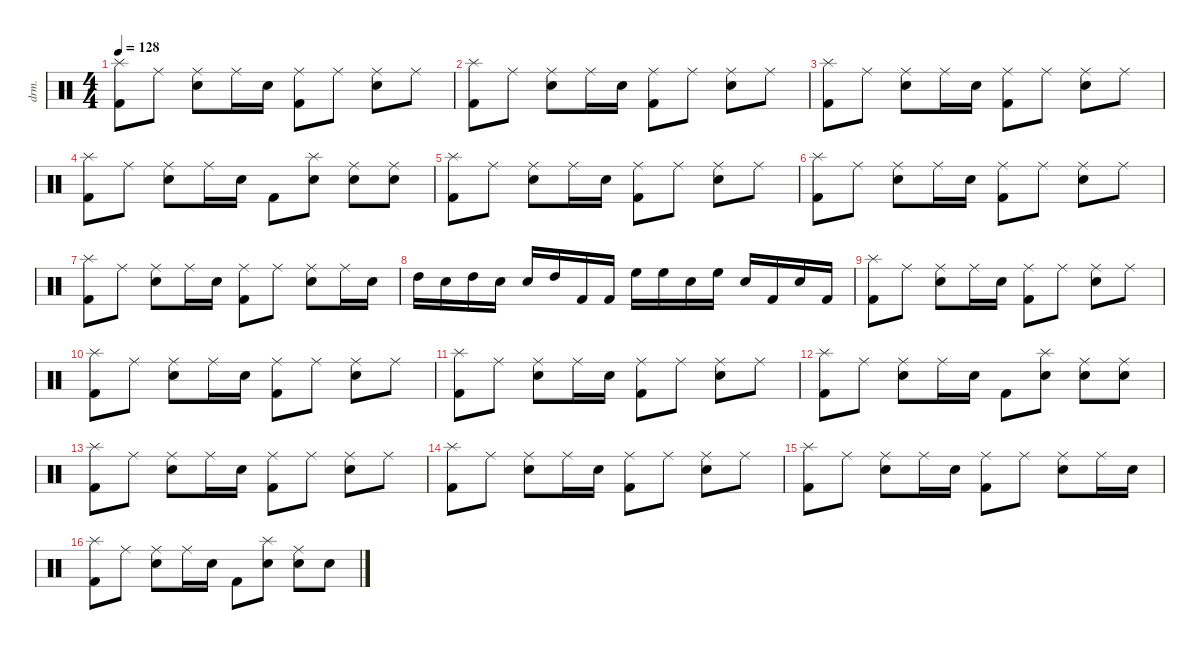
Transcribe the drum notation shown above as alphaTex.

\defaultSystemsLayout 4
\hideDynamics
\bracketExtendMode nobrackets
\track ("Drumkit" "drm.") {instrument percussion}
\staff {score}
\articulation defaults
\ts (4 4)
\tempo 128
\clef neutral
\ks c
("Kick (hit) 2" "Splash (hit)").8{dy mf beam Down} "Ride (middle)".8{beam Down} ("Ride (middle)" "Snare (hit) 2").8{beam Down} "Ride (middle)".16{beam Down} "Snare (hit) 2".16{beam Down} ("Ride (middle)" "Kick (hit) 2").8{beam Down} "Ride (middle)".8{beam Down} ("Ride (middle)" "Snare (hit) 2").8{beam Down} "Ride (middle)".8{beam Down} |
("Kick (hit) 2" "Splash (hit)").8{beam Down} "Ride (middle)".8{beam Down} ("Ride (middle)" "Snare (hit) 2").8{beam Down} "Ride (middle)".16{beam Down} "Snare (hit) 2".16{beam Down} ("Ride (middle)" "Kick (hit) 2").8{beam Down} "Ride (middle)".8{beam Down} ("Ride (middle)" "Snare (hit) 2").8{beam Down} "Ride (middle)".8{beam Down} |
("Kick (hit) 2" "Splash (hit)").8{beam Down} "Ride (middle)".8{beam Down} ("Ride (middle)" "Snare (hit) 2").8{beam Down} "Ride (middle)".16{beam Down} "Snare (hit) 2".16{beam Down} ("Ride (middle)" "Kick (hit) 2").8{beam Down} "Ride (middle)".8{beam Down} ("Ride (middle)" "Snare (hit) 2").8{beam Down} "Ride (middle)".8{beam Down} |
("Kick (hit) 2" "Splash (hit)").8{beam Down} "Ride (middle)".8{beam Down} ("Ride (middle)" "Snare (hit) 2").8{beam Down} "Ride (middle)".16{beam Down} "Snare (hit) 2".16{beam Down} "Kick (hit) 2".8{beam Down} ("Snare (hit) 2" "Splash (hit)").8{beam Down} ("Ride (middle)" "Snare (hit) 2").8{beam Down} ("Ride (middle)" "Snare (hit) 2").8{beam Down} |
("Kick (hit) 2" "Splash (hit)").8{beam Down} "Ride (middle)".8{beam Down} ("Ride (middle)" "Snare (hit) 2").8{beam Down} "Ride (middle)".16{beam Down} "Snare (hit) 2".16{beam Down} ("Ride (middle)" "Kick (hit) 2").8{beam Down} "Ride (middle)".8{beam Down} ("Ride (middle)" "Snare (hit) 2").8{beam Down} "Ride (middle)".8{beam Down} |
("Kick (hit) 2" "Splash (hit)").8{beam Down} "Ride (middle)".8{beam Down} ("Ride (middle)" "Snare (hit) 2").8{beam Down} "Ride (middle)".16{beam Down} "Snare (hit) 2".16{beam Down} ("Ride (middle)" "Kick (hit) 2").8{beam Down} "Ride (middle)".8{beam Down} ("Ride (middle)" "Snare (hit) 2").8{beam Down} "Ride (middle)".8{beam Down} |
("Kick (hit) 2" "Splash (hit)").8{beam Down} "Ride (middle)".8{beam Down} ("Ride (middle)" "Snare (hit) 2").8{beam Down} "Ride (middle)".16{beam Down} "Snare (hit) 2".16{beam Down} ("Ride (middle)" "Kick (hit) 2").8{beam Down} "Ride (middle)".8{beam Down} ("Ride (middle)" "Snare (hit) 2").8{beam Down} "Ride (middle)".16{beam Down} "Snare (hit) 2".16{beam Down} |
"High Tom (hit)".16{beam Down} "Snare (hit) 2".16{beam Down} "High Tom (hit)".16{beam Down} "Snare (hit) 2".16{beam Down} "Snare (hit) 2".16{beam Up} "High Tom (hit)".16{beam Up} "Kick (hit) 2".16{beam Up} "Kick (hit) 2".16{beam Up} "High Floor Tom (hit)".16{beam Down} "High Floor Tom (hit)".16{beam Down} "Snare (hit) 2".16{beam Down} "High Floor Tom (hit)".16{beam Down} "Snare (hit) 2".16{beam Up} "Kick (hit) 2".16{beam Up} "Snare (hit) 2".16{beam Up} "Kick (hit) 2".16{beam Up} |
("Kick (hit) 2" "Splash (hit)").8{beam Down} "Ride (middle)".8{beam Down} ("Ride (middle)" "Snare (hit) 2").8{beam Down} "Ride (middle)".16{beam Down} "Snare (hit) 2".16{beam Down} ("Ride (middle)" "Kick (hit) 2").8{beam Down} "Ride (middle)".8{beam Down} ("Ride (middle)" "Snare (hit) 2").8{beam Down} "Ride (middle)".8{beam Down} |
("Kick (hit) 2" "Splash (hit)").8{beam Down} "Ride (middle)".8{beam Down} ("Ride (middle)" "Snare (hit) 2").8{beam Down} "Ride (middle)".16{beam Down} "Snare (hit) 2".16{beam Down} ("Ride (middle)" "Kick (hit) 2").8{beam Down} "Ride (middle)".8{beam Down} ("Ride (middle)" "Snare (hit) 2").8{beam Down} "Ride (middle)".8{beam Down} |
("Kick (hit) 2" "Splash (hit)").8{beam Down} "Ride (middle)".8{beam Down} ("Ride (middle)" "Snare (hit) 2").8{beam Down} "Ride (middle)".16{beam Down} "Snare (hit) 2".16{beam Down} ("Ride (middle)" "Kick (hit) 2").8{beam Down} "Ride (middle)".8{beam Down} ("Ride (middle)" "Snare (hit) 2").8{beam Down} "Ride (middle)".8{beam Down} |
("Kick (hit) 2" "Splash (hit)").8{beam Down} "Ride (middle)".8{beam Down} ("Ride (middle)" "Snare (hit) 2").8{beam Down} "Ride (middle)".16{beam Down} "Snare (hit) 2".16{beam Down} "Kick (hit) 2".8{beam Down} ("Snare (hit) 2" "Splash (hit)").8{beam Down} ("Ride (middle)" "Snare (hit) 2").8{beam Down} ("Ride (middle)" "Snare (hit) 2").8{beam Down} |
("Kick (hit) 2" "Splash (hit)").8{beam Down} "Ride (middle)".8{beam Down} ("Ride (middle)" "Snare (hit) 2").8{beam Down} "Ride (middle)".16{beam Down} "Snare (hit) 2".16{beam Down} ("Ride (middle)" "Kick (hit) 2").8{beam Down} "Ride (middle)".8{beam Down} ("Ride (middle)" "Snare (hit) 2").8{beam Down} "Ride (middle)".8{beam Down} |
("Kick (hit) 2" "Splash (hit)").8{beam Down} "Ride (middle)".8{beam Down} ("Ride (middle)" "Snare (hit) 2").8{beam Down} "Ride (middle)".16{beam Down} "Snare (hit) 2".16{beam Down} ("Ride (middle)" "Kick (hit) 2").8{beam Down} "Ride (middle)".8{beam Down} ("Ride (middle)" "Snare (hit) 2").8{beam Down} "Ride (middle)".8{beam Down} |
("Kick (hit) 2" "Splash (hit)").8{beam Down} "Ride (middle)".8{beam Down} ("Ride (middle)" "Snare (hit) 2").8{beam Down} "Ride (middle)".16{beam Down} "Snare (hit) 2".16{beam Down} ("Ride (middle)" "Kick (hit) 2").8{beam Down} "Ride (middle)".8{beam Down} ("Ride (middle)" "Snare (hit) 2").8{beam Down} "Ride (middle)".16{beam Down} "Snare (hit) 2".16{beam Down} |
("Kick (hit) 2" "Splash (hit)").8{beam Down} "Ride (middle)".8{beam Down} ("Ride (middle)" "Snare (hit) 2").8{beam Down} "Ride (middle)".16{beam Down} "Snare (hit) 2".16{beam Down} "Kick (hit) 2".8{beam Down} ("Snare (hit) 2" "Splash (hit)").8{beam Down} ("Ride (middle)" "Snare (hit) 2").8{beam Down} "Snare (hit) 2".8{beam Down}
